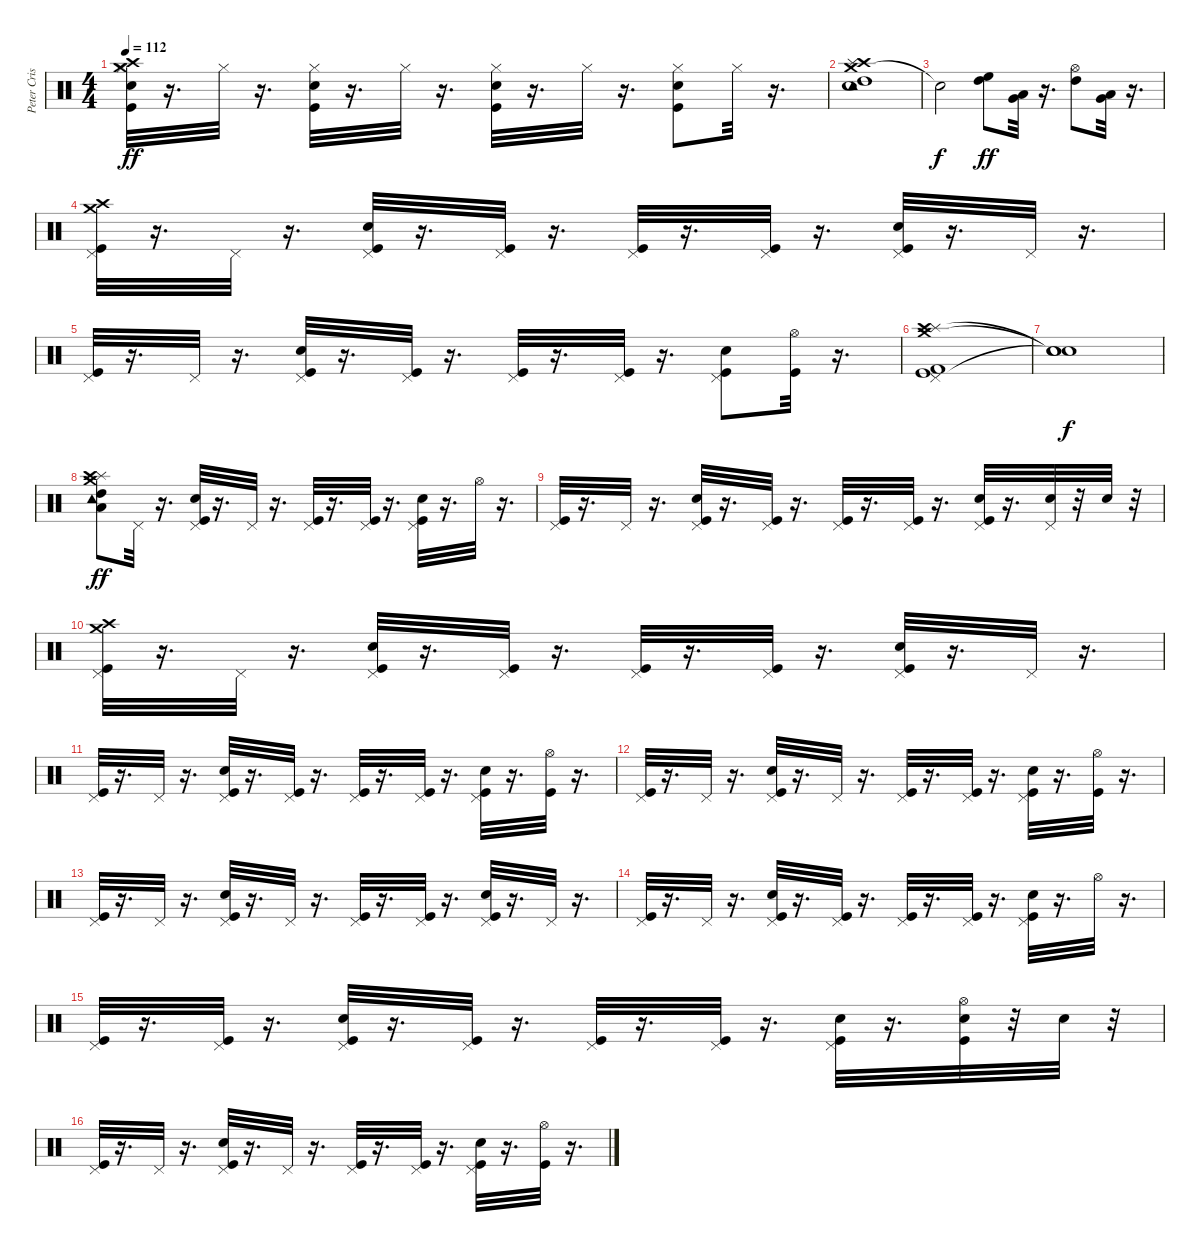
\track ("Peter Criss" "Peter Cris") {instrument percussion}
\staff {score}
\articulation defaults
\ts (4 4)
\tempo 112
\clef neutral
\ks c
("Snare (hit) 2" "Crash medium (hit)" "Kick (hit)" "Crash high (hit)" "Hi-Hat (closed)").32{dy ff} r.16{d} "Hi-Hat (closed)".32 r.16{d} ("Snare (hit) 2" "Hi-Hat (closed)" "Kick (hit)").32 r.16{d} "Hi-Hat (closed)".32 r.16{d} ("Hi-Hat (closed)" "Snare (hit) 2" "Kick (hit)").32 r.16{d} "Hi-Hat (closed)".32 r.16{d} ("Kick (hit)" "Snare (hit) 2" "Hi-Hat (closed)").8 "Hi-Hat (closed)".32 r.16{d} |
("Crash medium (hit)" "Crash high (hit)" "Splash (hit)" "Tambourine (hit)" "Snare (hit) 2" "High Tom (hit)").1 |
"Snare (hit)"{t}.2{dy f} ("High Floor Tom (hit)" "High Tom (hit)").8{dy ff} ("Very Low Tom (hit)" "Low Floor Tom (hit)").32 r.16{d} ("High Tom (hit)" "Hi-Hat (open)").8 ("Very Low Tom (hit)" "Low Floor Tom (hit)").32 r.16{d} |
("Kick (hit)" "Crash high (hit)" "Pedal Hi-Hat (hit)" "Crash medium (hit)").32 r.16{d} "Pedal Hi-Hat (hit)".32 r.16{d} ("Snare (hit) 2" "Kick (hit)" "Pedal Hi-Hat (hit)").32 r.16{d} ("Pedal Hi-Hat (hit)" "Kick (hit)").32 r.16{d} ("Pedal Hi-Hat (hit)" "Kick (hit)").32 r.16{d} ("Kick (hit)" "Pedal Hi-Hat (hit)").32 r.16{d} ("Snare (hit) 2" "Pedal Hi-Hat (hit)" "Kick (hit)").32 r.16{d} "Pedal Hi-Hat (hit)".32 r.16{d} |
("Pedal Hi-Hat (hit)" "Kick (hit)").32 r.16{d} "Pedal Hi-Hat (hit)".32 r.16{d} ("Snare (hit) 2" "Kick (hit)" "Pedal Hi-Hat (hit)").32 r.16{d} ("Kick (hit)" "Pedal Hi-Hat (hit)").32 r.16{d} ("Kick (hit)" "Pedal Hi-Hat (hit)").32 r.16{d} ("Pedal Hi-Hat (hit)" "Kick (hit)").32 r.16{d} ("Snare (hit) 2" "Kick (hit)" "Pedal Hi-Hat (hit)").8 ("Hi-Hat (open)" "Kick (hit)").32 r.16{d} |
("Splash (hit)" "Crash medium (hit)" "Pedal Hi-Hat (hit)" "Kick (hit) 2" "Kick (hit)" "Crash high (hit)").1 |
("Snare (hit)"{t} "Snare (hit)"{t} "Snare (hit)"{t}).1{dy f} |
("Low Tom (hit)" "Crash medium (hit)" "Splash (hit)" "High Tom (hit)" "Tambourine (hit)" "Crash high (hit)").8{dy ff} "Pedal Hi-Hat (hit)".32 r.16{d} ("Snare (hit) 2" "Pedal Hi-Hat (hit)" "Kick (hit)").32 r.16{d} "Pedal Hi-Hat (hit)".32 r.16{d} ("Pedal Hi-Hat (hit)" "Kick (hit)").32 r.16{d} ("Kick (hit)" "Pedal Hi-Hat (hit)").32 r.16{d} ("Kick (hit)" "Snare (hit) 2" "Pedal Hi-Hat (hit)").32 r.16{d} "Hi-Hat (open)".32 r.16{d} |
("Kick (hit)" "Pedal Hi-Hat (hit)").32 r.16{d} "Pedal Hi-Hat (hit)".32 r.16{d} ("Snare (hit) 2" "Kick (hit)" "Pedal Hi-Hat (hit)").32 r.16{d} ("Kick (hit)" "Pedal Hi-Hat (hit)").32 r.16{d} ("Kick (hit)" "Pedal Hi-Hat (hit)").32 r.16{d} ("Kick (hit)" "Pedal Hi-Hat (hit)").32 r.16{d} ("Kick (hit)" "Pedal Hi-Hat (hit)" "Snare (hit) 2").32 r.16{d} ("Snare (hit) 2" "Pedal Hi-Hat (hit)").32 r.32 "Snare (hit) 2".32 r.32 |
("Crash medium (hit)" "Crash high (hit)" "Pedal Hi-Hat (hit)" "Kick (hit)").32 r.16{d} "Pedal Hi-Hat (hit)".32 r.16{d} ("Snare (hit) 2" "Kick (hit)" "Pedal Hi-Hat (hit)").32 r.16{d} ("Pedal Hi-Hat (hit)" "Kick (hit)").32 r.16{d} ("Kick (hit)" "Pedal Hi-Hat (hit)").32 r.16{d} ("Pedal Hi-Hat (hit)" "Kick (hit)").32 r.16{d} ("Kick (hit)" "Snare (hit) 2" "Pedal Hi-Hat (hit)").32 r.16{d} "Pedal Hi-Hat (hit)".32 r.16{d} |
("Pedal Hi-Hat (hit)" "Kick (hit)").32 r.16{d} "Pedal Hi-Hat (hit)".32 r.16{d} ("Snare (hit) 2" "Pedal Hi-Hat (hit)" "Kick (hit)").32 r.16{d} ("Kick (hit)" "Pedal Hi-Hat (hit)").32 r.16{d} ("Kick (hit)" "Pedal Hi-Hat (hit)").32 r.16{d} ("Pedal Hi-Hat (hit)" "Kick (hit)").32 r.16{d} ("Kick (hit)" "Snare (hit) 2" "Pedal Hi-Hat (hit)").32 r.16{d} ("Hi-Hat (open)" "Kick (hit)").32 r.16{d} |
("Pedal Hi-Hat (hit)" "Kick (hit)").32 r.16{d} "Pedal Hi-Hat (hit)".32 r.16{d} ("Snare (hit) 2" "Pedal Hi-Hat (hit)" "Kick (hit)").32 r.16{d} "Pedal Hi-Hat (hit)".32 r.16{d} ("Pedal Hi-Hat (hit)" "Kick (hit)").32 r.16{d} ("Kick (hit)" "Pedal Hi-Hat (hit)").32 r.16{d} ("Pedal Hi-Hat (hit)" "Kick (hit)" "Snare (hit) 2").32 r.16{d} ("Kick (hit)" "Hi-Hat (open)").32 r.16{d} |
("Kick (hit)" "Pedal Hi-Hat (hit)").32 r.16{d} "Pedal Hi-Hat (hit)".32 r.16{d} ("Kick (hit)" "Pedal Hi-Hat (hit)" "Snare (hit) 2").32 r.16{d} "Pedal Hi-Hat (hit)".32 r.16{d} ("Pedal Hi-Hat (hit)" "Kick (hit)").32 r.16{d} ("Pedal Hi-Hat (hit)" "Kick (hit)").32 r.16{d} ("Pedal Hi-Hat (hit)" "Snare (hit) 2" "Kick (hit)").32 r.16{d} "Pedal Hi-Hat (hit)".32 r.16{d} |
("Kick (hit)" "Pedal Hi-Hat (hit)").32 r.16{d} "Pedal Hi-Hat (hit)".32 r.16{d} ("Snare (hit) 2" "Pedal Hi-Hat (hit)" "Kick (hit)").32 r.16{d} ("Pedal Hi-Hat (hit)" "Kick (hit)").32 r.16{d} ("Pedal Hi-Hat (hit)" "Kick (hit)").32 r.16{d} ("Kick (hit)" "Pedal Hi-Hat (hit)").32 r.16{d} ("Kick (hit)" "Snare (hit) 2" "Pedal Hi-Hat (hit)").32 r.16{d} "Hi-Hat (open)".32 r.16{d} |
("Kick (hit)" "Pedal Hi-Hat (hit)").32 r.16{d} ("Kick (hit)" "Pedal Hi-Hat (hit)").32 r.16{d} ("Snare (hit) 2" "Kick (hit)" "Pedal Hi-Hat (hit)").32 r.16{d} ("Kick (hit)" "Pedal Hi-Hat (hit)").32 r.16{d} ("Pedal Hi-Hat (hit)" "Kick (hit)").32 r.16{d} ("Kick (hit)" "Pedal Hi-Hat (hit)").32 r.16{d} ("Pedal Hi-Hat (hit)" "Snare (hit) 2" "Kick (hit)").32 r.16{d} ("Snare (hit) 2" "Kick (hit)" "Hi-Hat (open)").32 r.32 "Snare (hit) 2".32 r.32 |
("Kick (hit)" "Pedal Hi-Hat (hit)").32 r.16{d} "Pedal Hi-Hat (hit)".32 r.16{d} ("Kick (hit)" "Snare (hit) 2" "Pedal Hi-Hat (hit)").32 r.16{d} "Pedal Hi-Hat (hit)".32 r.16{d} ("Pedal Hi-Hat (hit)" "Kick (hit)").32 r.16{d} ("Pedal Hi-Hat (hit)" "Kick (hit)").32 r.16{d} ("Pedal Hi-Hat (hit)" "Kick (hit)" "Snare (hit) 2").32 r.16{d} ("Kick (hit)" "Hi-Hat (open)").32 r.16{d}
